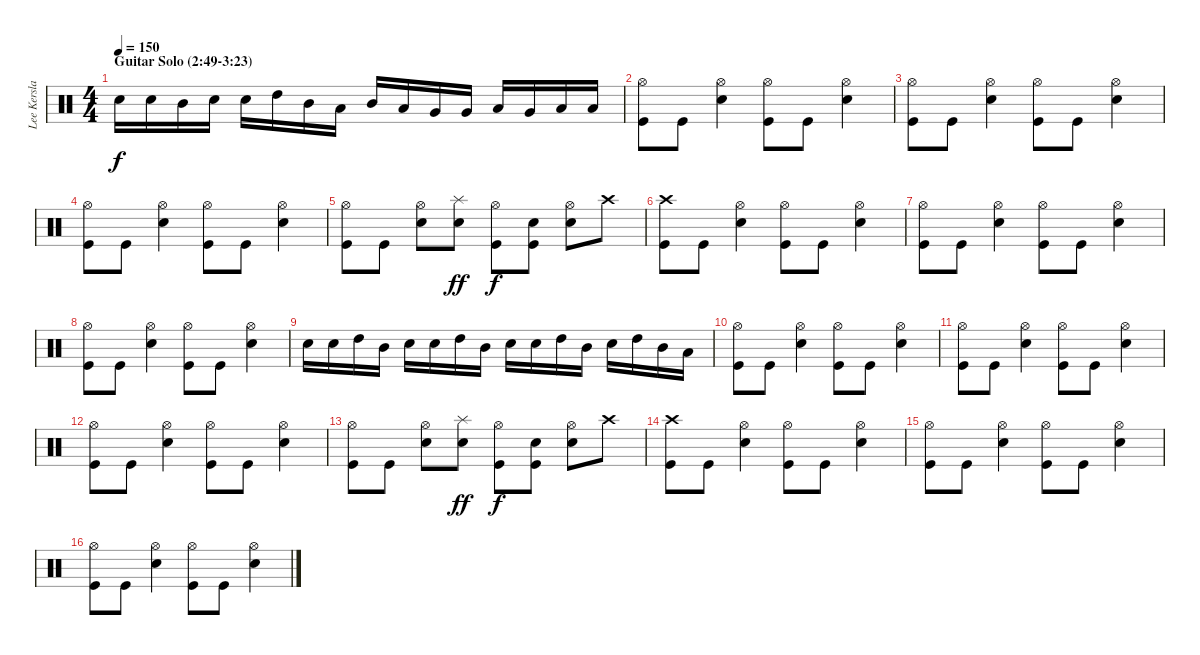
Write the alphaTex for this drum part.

\track ("Lee Kerslake" "Lee Kersla") {instrument percussion}
\staff {score}
\articulation defaults
\ts (4 4)
\section ("" "Guitar Solo (2:49-3:23)")
\tempo 150
\clef neutral
\ks c "Electric Snare (hit)".16{dy f} "Electric Snare (hit)".16 "Mid Tom (hit)".16 "Electric Snare (hit)".16 "Electric Snare (hit)".16 "High Tom (hit)".16 "Mid Tom (hit)".16 "Low Tom (hit)".16 "Mid Tom (hit)".16 "Low Tom (hit)".16 "Very Low Tom (hit)".16 "Very Low Tom (hit)".16 "Low Tom (hit)".16 "Very Low Tom (hit)".16 "Low Floor Tom (hit)".16 "Low Floor Tom (hit)".16
|
("Hi-Hat (open)" "Kick (hit)").8 "Kick (hit)".8 ("Hi-Hat (open)" "Electric Snare (hit)").4 ("Hi-Hat (open)" "Kick (hit)").8 "Kick (hit)".8 ("Hi-Hat (open)" "Electric Snare (hit)").4 |
("Hi-Hat (open)" "Kick (hit)").8 "Kick (hit)".8 ("Hi-Hat (open)" "Electric Snare (hit)").4 ("Hi-Hat (open)" "Kick (hit)").8 "Kick (hit)".8 ("Hi-Hat (open)" "Electric Snare (hit)").4 |
("Hi-Hat (open)" "Kick (hit)").8 "Kick (hit)".8 ("Hi-Hat (open)" "Electric Snare (hit)").4 ("Hi-Hat (open)" "Kick (hit)").8 "Kick (hit)".8 ("Hi-Hat (open)" "Electric Snare (hit)").4 |
("Hi-Hat (open)" "Kick (hit)").8 "Kick (hit)".8 ("Hi-Hat (open)" "Electric Snare (hit)").8 ("Splash (hit)" "Electric Snare (hit)").8{dy ff} ("Hi-Hat (open)" "Kick (hit)").8{dy f} ("Electric Snare (hit)" "Kick (hit)").8 ("Hi-Hat (open)" "Electric Snare (hit)").8 "Crash high (hit)".8 |
("Crash high (hit)" "Kick (hit)").8 "Kick (hit)".8 ("Hi-Hat (open)" "Electric Snare (hit)").4 ("Hi-Hat (open)" "Kick (hit)").8 "Kick (hit)".8 ("Hi-Hat (open)" "Electric Snare (hit)").4 |
("Hi-Hat (open)" "Kick (hit)").8 "Kick (hit)".8 ("Hi-Hat (open)" "Electric Snare (hit)").4 ("Hi-Hat (open)" "Kick (hit)").8 "Kick (hit)".8 ("Hi-Hat (open)" "Electric Snare (hit)").4 |
("Hi-Hat (open)" "Kick (hit)").8 "Kick (hit)".8 ("Hi-Hat (open)" "Electric Snare (hit)").4 ("Hi-Hat (open)" "Kick (hit)").8 "Kick (hit)".8 ("Hi-Hat (open)" "Electric Snare (hit)").4 |
"Electric Snare (hit)".16 "Electric Snare (hit)".16 "High Tom (hit)".16 "Mid Tom (hit)".16 "Electric Snare (hit)".16 "Electric Snare (hit)".16 "High Tom (hit)".16 "Mid Tom (hit)".16 "Electric Snare (hit)".16 "Electric Snare (hit)".16 "High Tom (hit)".16 "Mid Tom (hit)".16 "Electric Snare (hit)".16 "High Tom (hit)".16 "Mid Tom (hit)".16 "Low Tom (hit)".16 |
("Hi-Hat (open)" "Kick (hit)").8 "Kick (hit)".8 ("Hi-Hat (open)" "Electric Snare (hit)").4 ("Hi-Hat (open)" "Kick (hit)").8 "Kick (hit)".8 ("Hi-Hat (open)" "Electric Snare (hit)").4 |
("Hi-Hat (open)" "Kick (hit)").8 "Kick (hit)".8 ("Hi-Hat (open)" "Electric Snare (hit)").4 ("Hi-Hat (open)" "Kick (hit)").8 "Kick (hit)".8 ("Hi-Hat (open)" "Electric Snare (hit)").4 |
("Hi-Hat (open)" "Kick (hit)").8 "Kick (hit)".8 ("Hi-Hat (open)" "Electric Snare (hit)").4 ("Hi-Hat (open)" "Kick (hit)").8 "Kick (hit)".8 ("Hi-Hat (open)" "Electric Snare (hit)").4 |
("Hi-Hat (open)" "Kick (hit)").8 "Kick (hit)".8 ("Hi-Hat (open)" "Electric Snare (hit)").8 ("Splash (hit)" "Electric Snare (hit)").8{dy ff} ("Hi-Hat (open)" "Kick (hit)").8{dy f} ("Electric Snare (hit)" "Kick (hit)").8 ("Hi-Hat (open)" "Electric Snare (hit)").8 "Crash high (hit)".8 |
("Crash high (hit)" "Kick (hit)").8 "Kick (hit)".8 ("Hi-Hat (open)" "Electric Snare (hit)").4 ("Hi-Hat (open)" "Kick (hit)").8 "Kick (hit)".8 ("Hi-Hat (open)" "Electric Snare (hit)").4 |
("Hi-Hat (open)" "Kick (hit)").8 "Kick (hit)".8 ("Hi-Hat (open)" "Electric Snare (hit)").4 ("Hi-Hat (open)" "Kick (hit)").8 "Kick (hit)".8 ("Hi-Hat (open)" "Electric Snare (hit)").4 |
("Hi-Hat (open)" "Kick (hit)").8 "Kick (hit)".8 ("Hi-Hat (open)" "Electric Snare (hit)").4 ("Hi-Hat (open)" "Kick (hit)").8 "Kick (hit)".8 ("Hi-Hat (open)" "Electric Snare (hit)").4
